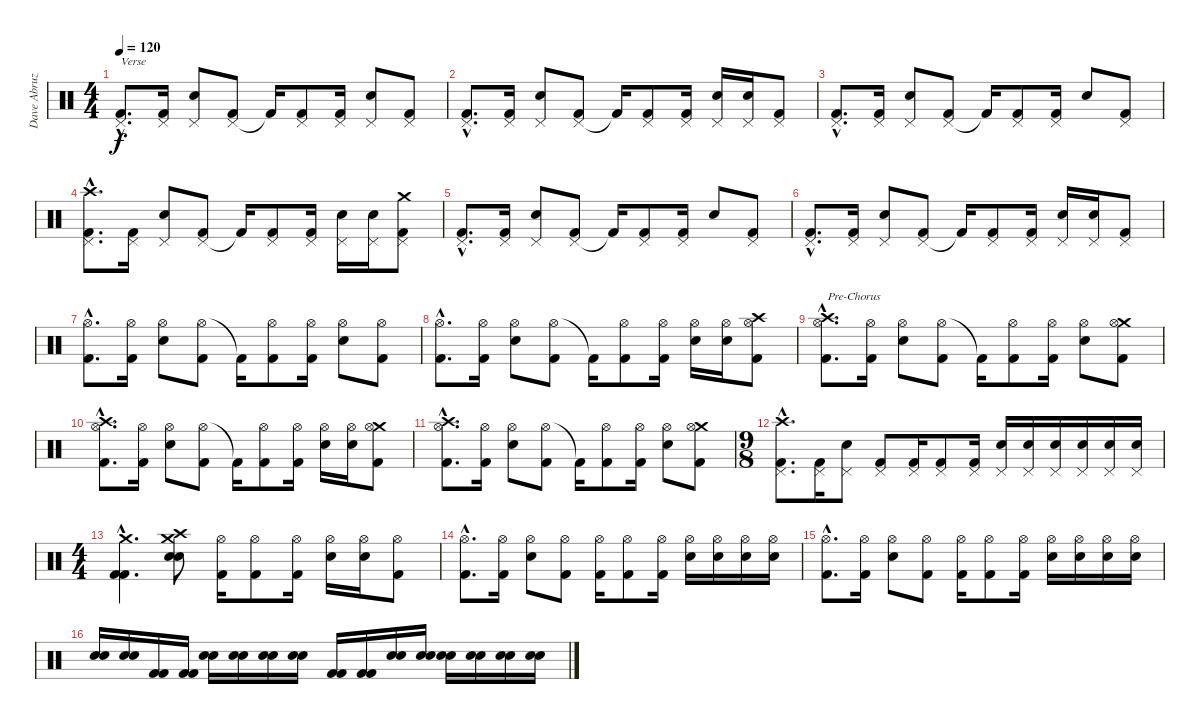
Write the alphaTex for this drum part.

\track ("Dave Abruzzesse" "Dave Abruz") {instrument percussion}
\staff {score}
\articulation defaults
\ts (4 4)
\tempo 120
\clef neutral
\ks c
("Pedal Hi-Hat (hit)"{hac} "Kick (hit) 2"{hac}).8{d txt "Verse" dy f} ("Pedal Hi-Hat (hit)" "Kick (hit) 2").16 ("Pedal Hi-Hat (hit)" "Snare (hit) 2").8 ("Pedal Hi-Hat (hit)" "Kick (hit) 2").8 "Kick (hit) 2"{t}.16 ("Pedal Hi-Hat (hit)" "Kick (hit) 2").8 ("Pedal Hi-Hat (hit)" "Kick (hit) 2").16 ("Pedal Hi-Hat (hit)" "Snare (hit) 2").8 ("Pedal Hi-Hat (hit)" "Kick (hit) 2").8 |
("Pedal Hi-Hat (hit)"{hac} "Kick (hit) 2"{hac}).8{d} ("Pedal Hi-Hat (hit)" "Kick (hit) 2").16 ("Pedal Hi-Hat (hit)" "Snare (hit) 2").8 ("Pedal Hi-Hat (hit)" "Kick (hit) 2").8 "Kick (hit) 2"{t}.16 ("Pedal Hi-Hat (hit)" "Kick (hit) 2").8 ("Pedal Hi-Hat (hit)" "Kick (hit) 2").16 ("Pedal Hi-Hat (hit)" "Snare (hit) 2").16 ("Pedal Hi-Hat (hit)" "Snare (hit) 2").16 ("Pedal Hi-Hat (hit)" "Kick (hit) 2").8 |
("Pedal Hi-Hat (hit)"{hac} "Kick (hit) 2"{hac}).8{d} ("Pedal Hi-Hat (hit)" "Kick (hit) 2").16 ("Pedal Hi-Hat (hit)" "Snare (hit) 2").8 ("Pedal Hi-Hat (hit)" "Kick (hit) 2").8 "Kick (hit) 2"{t}.16 ("Pedal Hi-Hat (hit)" "Kick (hit) 2").8 ("Pedal Hi-Hat (hit)" "Kick (hit) 2").16 "Snare (hit) 2".8 ("Pedal Hi-Hat (hit)" "Kick (hit) 2").8 |
("Crash high (hit)"{hac} "Pedal Hi-Hat (hit)"{hac} "Kick (hit) 2"{hac}).8{d} ("Pedal Hi-Hat (hit)" "Kick (hit) 2").16 ("Pedal Hi-Hat (hit)" "Snare (hit) 2").8 ("Pedal Hi-Hat (hit)" "Kick (hit) 2").8 "Kick (hit) 2"{t}.16 ("Pedal Hi-Hat (hit)" "Kick (hit) 2").8 ("Pedal Hi-Hat (hit)" "Kick (hit) 2").16 ("Pedal Hi-Hat (hit)" "Snare (hit) 2").16 ("Pedal Hi-Hat (hit)" "Snare (hit) 2").16 ("Crash medium (hit)" "Pedal Hi-Hat (hit)" "Kick (hit) 2").8 |
("Pedal Hi-Hat (hit)"{hac} "Kick (hit) 2"{hac}).8{d} ("Pedal Hi-Hat (hit)" "Kick (hit) 2").16 ("Pedal Hi-Hat (hit)" "Snare (hit) 2").8 ("Pedal Hi-Hat (hit)" "Kick (hit) 2").8 "Kick (hit) 2"{t}.16 ("Pedal Hi-Hat (hit)" "Kick (hit) 2").8 ("Pedal Hi-Hat (hit)" "Kick (hit) 2").16 "Snare (hit) 2".8 ("Pedal Hi-Hat (hit)" "Kick (hit) 2").8 |
("Pedal Hi-Hat (hit)"{hac} "Kick (hit) 2"{hac}).8{d} ("Pedal Hi-Hat (hit)" "Kick (hit) 2").16 ("Pedal Hi-Hat (hit)" "Snare (hit) 2").8 ("Pedal Hi-Hat (hit)" "Kick (hit) 2").8 "Kick (hit) 2"{t}.16 ("Pedal Hi-Hat (hit)" "Kick (hit) 2").8 ("Pedal Hi-Hat (hit)" "Kick (hit) 2").16 ("Pedal Hi-Hat (hit)" "Snare (hit) 2").16 ("Pedal Hi-Hat (hit)" "Snare (hit) 2").16 ("Pedal Hi-Hat (hit)" "Kick (hit) 2").8 |
("Hi-Hat (open)"{hac} "Kick (hit) 2"{hac}).8{d} ("Hi-Hat (open)" "Kick (hit) 2").16 ("Hi-Hat (open)" "Snare (hit) 2").8 ("Hi-Hat (open)" "Kick (hit) 2").8 "Kick (hit) 2"{t}.16 ("Hi-Hat (open)" "Kick (hit) 2").8 ("Hi-Hat (open)" "Kick (hit) 2").16 ("Hi-Hat (open)" "Snare (hit) 2").8 ("Hi-Hat (open)" "Kick (hit) 2").8 |
("Hi-Hat (open)"{hac} "Kick (hit) 2"{hac}).8{d} ("Hi-Hat (open)" "Kick (hit) 2").16 ("Hi-Hat (open)" "Snare (hit) 2").8 ("Hi-Hat (open)" "Kick (hit) 2").8 "Kick (hit) 2"{t}.16 ("Hi-Hat (open)" "Kick (hit) 2").8 ("Hi-Hat (open)" "Kick (hit) 2").16 ("Hi-Hat (open)" "Snare (hit) 2").16 ("Hi-Hat (open)" "Snare (hit) 2").16 ("Crash high (hit)" "Hi-Hat (open)" "Kick (hit) 2").8 |
("Crash high (hit)"{hac} "Hi-Hat (open)"{hac} "Kick (hit) 2"{hac}).8{d txt "Pre-Chorus"} ("Hi-Hat (open)" "Kick (hit) 2").16 ("Hi-Hat (open)" "Snare (hit) 2").8 ("Hi-Hat (open)" "Kick (hit) 2").8 "Kick (hit) 2"{t}.16 ("Hi-Hat (open)" "Kick (hit) 2").8 ("Hi-Hat (open)" "Kick (hit) 2").16 ("Hi-Hat (open)" "Snare (hit) 2").8 ("Crash medium (hit)" "Hi-Hat (open)" "Kick (hit) 2").8 |
("Crash high (hit)"{hac} "Hi-Hat (open)"{hac} "Kick (hit) 2"{hac}).8{d} ("Hi-Hat (open)" "Kick (hit) 2").16 ("Hi-Hat (open)" "Snare (hit) 2").8 ("Hi-Hat (open)" "Kick (hit) 2").8 "Kick (hit) 2"{t}.16 ("Hi-Hat (open)" "Kick (hit) 2").8 ("Hi-Hat (open)" "Kick (hit) 2").16 ("Hi-Hat (open)" "Snare (hit) 2").16 ("Hi-Hat (open)" "Snare (hit) 2").16 ("Crash medium (hit)" "Hi-Hat (open)" "Kick (hit) 2").8 |
("Crash high (hit)"{hac} "Hi-Hat (open)"{hac} "Kick (hit) 2"{hac}).8{d} ("Hi-Hat (open)" "Kick (hit) 2").16 ("Hi-Hat (open)" "Snare (hit) 2").8 ("Hi-Hat (open)" "Kick (hit) 2").8 "Kick (hit) 2"{t}.16 ("Hi-Hat (open)" "Kick (hit) 2").8 ("Hi-Hat (open)" "Kick (hit) 2").16 ("Hi-Hat (open)" "Snare (hit) 2").8 ("Crash medium (hit)" "Hi-Hat (open)" "Kick (hit) 2").8 |
\ts (9 8)
("Crash high (hit)"{hac} "Pedal Hi-Hat (hit)"{hac} "Kick (hit) 2"{hac}).8{d} ("Pedal Hi-Hat (hit)" "Kick (hit) 2").16 ("Pedal Hi-Hat (hit)" "Snare (hit) 2").8 ("Pedal Hi-Hat (hit)" "Kick (hit) 2").8 ("Pedal Hi-Hat (hit)" "Kick (hit) 2").16 ("Pedal Hi-Hat (hit)" "Kick (hit) 2").8 ("Pedal Hi-Hat (hit)" "Kick (hit) 2").16 ("Pedal Hi-Hat (hit)" "Snare (hit) 2").16 ("Pedal Hi-Hat (hit)" "Snare (hit) 2").16 ("Pedal Hi-Hat (hit)" "Snare (hit) 2").16 ("Pedal Hi-Hat (hit)" "Snare (hit) 2").16 ("Pedal Hi-Hat (hit)" "Snare (hit) 2").16 ("Pedal Hi-Hat (hit)" "Snare (hit) 2").16 |
\ts (4 4)
("Crash medium (hit)"{hac} "Kick (hit) 2"{hac} "Kick (hit) 2"{hac}).4{d} ("Crash high (hit)" "Crash medium (hit)" "Snare (hit) 2" "Snare (hit) 2").8 ("Hi-Hat (open)" "Kick (hit) 2").16 ("Hi-Hat (open)" "Kick (hit) 2").8 ("Hi-Hat (open)" "Kick (hit) 2").16 ("Hi-Hat (open)" "Snare (hit) 2").16 ("Hi-Hat (open)" "Snare (hit) 2").16 ("Hi-Hat (open)" "Kick (hit) 2").8 |
("Hi-Hat (open)"{hac} "Kick (hit) 2"{hac}).8{d} ("Hi-Hat (open)" "Kick (hit) 2").16 ("Hi-Hat (open)" "Snare (hit) 2").8 ("Hi-Hat (open)" "Kick (hit) 2").8 ("Hi-Hat (open)" "Kick (hit) 2").16 ("Hi-Hat (open)" "Kick (hit) 2").8 ("Hi-Hat (open)" "Kick (hit) 2").16 ("Hi-Hat (open)" "Snare (hit) 2").16 ("Hi-Hat (open)" "Snare (hit) 2").16 ("Hi-Hat (open)" "Snare (hit) 2").16 ("Hi-Hat (open)" "Snare (hit) 2").16 |
("Hi-Hat (open)"{hac} "Kick (hit) 2"{hac}).8{d} ("Hi-Hat (open)" "Kick (hit) 2").16 ("Hi-Hat (open)" "Snare (hit) 2").8 ("Hi-Hat (open)" "Kick (hit) 2").8 ("Hi-Hat (open)" "Kick (hit) 2").16 ("Hi-Hat (open)" "Kick (hit) 2").8 ("Hi-Hat (open)" "Kick (hit) 2").16 ("Hi-Hat (open)" "Snare (hit) 2").16 ("Hi-Hat (open)" "Snare (hit) 2").16 ("Hi-Hat (open)" "Snare (hit) 2").16 ("Hi-Hat (open)" "Snare (hit) 2").16 |
("Snare (hit) 2" "Snare (hit) 2").16 ("Snare (hit) 2" "Snare (hit) 2").16 ("Kick (hit) 2" "Kick (hit) 2").16 ("Kick (hit) 2" "Kick (hit) 2").16 ("Snare (hit) 2" "Snare (hit) 2").16 ("Snare (hit) 2" "Snare (hit) 2").16 ("Snare (hit) 2" "Snare (hit) 2").16 ("Snare (hit) 2" "Snare (hit) 2").16 ("Kick (hit) 2" "Kick (hit) 2").16 ("Kick (hit) 2" "Kick (hit) 2").16 ("Snare (hit) 2" "Snare (hit) 2").16 ("Snare (hit) 2" "Snare (hit) 2").16 ("Snare (hit) 2" "Snare (hit) 2").16 ("Snare (hit) 2" "Snare (hit) 2").16 ("Snare (hit) 2" "Snare (hit) 2").16 ("Snare (hit) 2" "Snare (hit) 2").16
